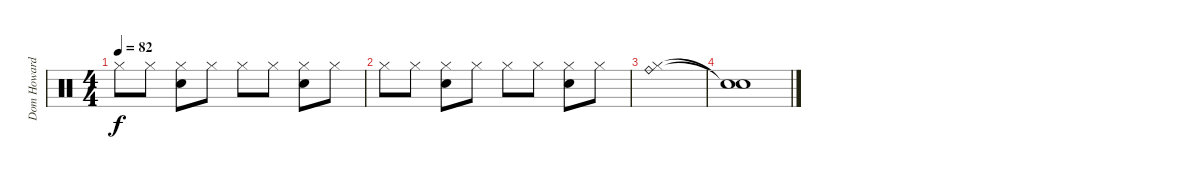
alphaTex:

\track ("Dom Howard" "Dom Howard") {instrument percussion}
\staff {score}
\articulation defaults
\ts (4 4)
\tempo 82
\clef neutral
\ks c "Hi-Hat (closed)".8{dy f} "Hi-Hat (closed)".8
("Hi-Hat (closed)" "Electric Snare (hit)").8 "Hi-Hat (closed)".8 "Hi-Hat (closed)".8 "Hi-Hat (closed)".8 ("Hi-Hat (closed)" "Electric Snare (hit)").8 "Hi-Hat (closed)".8 |
"Hi-Hat (closed)".8 "Hi-Hat (closed)".8 ("Hi-Hat (closed)" "Electric Snare (hit)").8 "Hi-Hat (closed)".8 "Hi-Hat (closed)".8 "Hi-Hat (closed)".8 ("Hi-Hat (closed)" "Electric Snare (hit)").8 "Hi-Hat (closed)".8 |
("Hi-Hat (closed)" "Ride (bell)").1 |
("Snare (hit)"{t} "Snare (hit)"{t}).1
